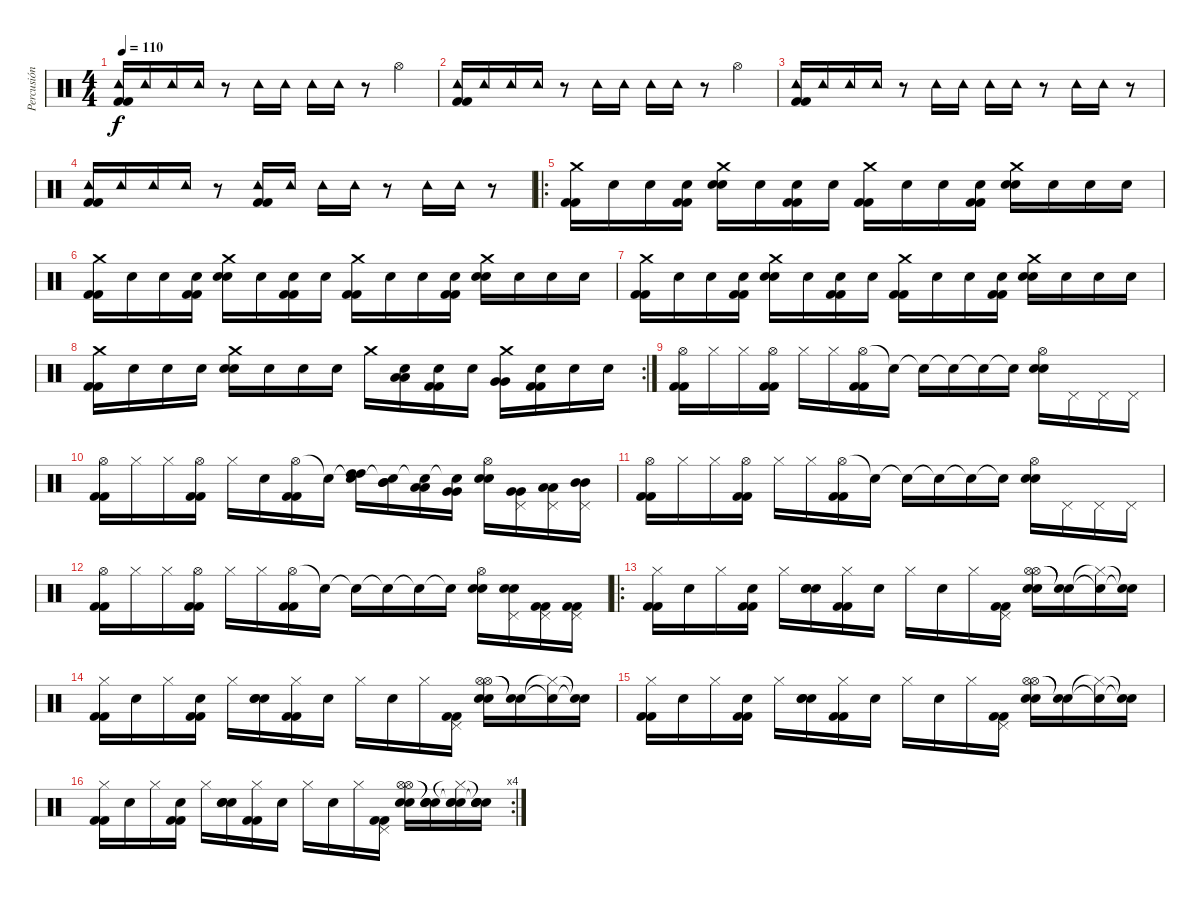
\track ("Percusión" "Percusión") {instrument percussion}
\staff {score}
\articulation defaults
\ts (4 4)
\tempo 110
\clef neutral
\ks c
("Tambourine (hit)" "Kick (hit) 2" "Kick (hit) 2").16{dy f} "Tambourine (hit)".16 "Tambourine (hit)".16 "Tambourine (hit)".16 r.8 "Tambourine (hit)".16 "Tambourine (hit)".16 "Tambourine (hit)".16 "Tambourine (hit)".16 r.8 "Hi-Hat (open)".4 |
("Tambourine (hit)" "Kick (hit) 2" "Kick (hit) 2").16 "Tambourine (hit)".16 "Tambourine (hit)".16 "Tambourine (hit)".16 r.8 "Tambourine (hit)".16 "Tambourine (hit)".16 "Tambourine (hit)".16 "Tambourine (hit)".16 r.8 "Hi-Hat (open)".4 |
("Tambourine (hit)" "Kick (hit) 2" "Kick (hit) 2").16 "Tambourine (hit)".16 "Tambourine (hit)".16 "Tambourine (hit)".16 r.8 "Tambourine (hit)".16 "Tambourine (hit)".16 "Tambourine (hit)".16 "Tambourine (hit)".16 r.8 "Tambourine (hit)".16 "Tambourine (hit)".16 r.8 |
("Tambourine (hit)" "Kick (hit) 2" "Kick (hit) 2").16 "Tambourine (hit)".16 "Tambourine (hit)".16 "Tambourine (hit)".16 r.8 ("Tambourine (hit)" "Kick (hit) 2" "Kick (hit) 2").16 "Tambourine (hit)".16 "Tambourine (hit)".16 "Tambourine (hit)".16 r.8 "Tambourine (hit)".16 "Tambourine (hit)".16 r.8 |
\ro
("Crash medium (hit)" "Kick (hit) 2" "Kick (hit) 2").16 "Snare (hit)".16 "Snare (hit)".16 ("Snare (hit)" "Kick (hit) 2" "Kick (hit) 2").16 ("Crash medium (hit)" "Electric Snare (hit)" "Electric Snare (hit)").16 "Snare (hit)".16 ("Snare (hit)" "Kick (hit) 2" "Kick (hit) 2").16 "Snare (hit)".16 ("Crash medium (hit)" "Kick (hit) 2" "Kick (hit) 2").16 "Snare (hit)".16 "Snare (hit)".16 ("Snare (hit)" "Kick (hit) 2" "Kick (hit) 2").16 ("Crash medium (hit)" "Electric Snare (hit)" "Electric Snare (hit)").16 "Snare (hit)".16 "Snare (hit)".16 "Snare (hit)".16 |
("Crash medium (hit)" "Kick (hit) 2" "Kick (hit) 2").16 "Snare (hit)".16 "Snare (hit)".16 ("Snare (hit)" "Kick (hit) 2" "Kick (hit) 2").16 ("Crash medium (hit)" "Electric Snare (hit)" "Electric Snare (hit)").16 "Snare (hit)".16 ("Snare (hit)" "Kick (hit) 2" "Kick (hit) 2").16 "Snare (hit)".16 ("Crash medium (hit)" "Kick (hit) 2" "Kick (hit) 2").16 "Snare (hit)".16 "Snare (hit)".16 ("Snare (hit)" "Kick (hit) 2" "Kick (hit) 2").16 ("Crash medium (hit)" "Electric Snare (hit)" "Electric Snare (hit)").16 "Snare (hit)".16 "Snare (hit)".16 "Snare (hit)".16 |
("Crash medium (hit)" "Kick (hit) 2" "Kick (hit) 2").16 "Snare (hit)".16 "Snare (hit)".16 ("Snare (hit)" "Kick (hit) 2" "Kick (hit) 2").16 ("Crash medium (hit)" "Electric Snare (hit)" "Electric Snare (hit)").16 "Snare (hit)".16 ("Snare (hit)" "Kick (hit) 2" "Kick (hit) 2").16 "Snare (hit)".16 ("Crash medium (hit)" "Kick (hit) 2" "Kick (hit) 2").16 "Snare (hit)".16 "Snare (hit)".16 ("Snare (hit)" "Kick (hit) 2" "Kick (hit) 2").16 ("Crash medium (hit)" "Electric Snare (hit)" "Electric Snare (hit)").16 "Snare (hit)".16 "Snare (hit)".16 "Snare (hit)".16 |
\rc 2
("Crash medium (hit)" "Kick (hit) 2" "Kick (hit) 2").16 "Snare (hit)".16 "Snare (hit)".16 "Snare (hit)".16 ("Crash medium (hit)" "Electric Snare (hit)" "Electric Snare (hit)").16 "Snare (hit)".16 "Snare (hit)".16 "Snare (hit)".16 "Crash medium (hit)".16 ("Snare (hit)" "Low Tom (hit)" "Low Tom (hit)").16 ("Snare (hit)" "Kick (hit) 2" "Kick (hit) 2").16 "Snare (hit)".16 ("Crash medium (hit)" "Very Low Tom (hit)" "Very Low Tom (hit)").16 ("Snare (hit)" "Kick (hit) 2" "Kick (hit) 2").16 "Snare (hit)".16 "Snare (hit)".16 |
("Hi-Hat (open)" "Kick (hit) 2" "Kick (hit) 2").16 "Hi-Hat (closed)".16 "Hi-Hat (closed)".16 ("Hi-Hat (open)" "Kick (hit) 2" "Kick (hit) 2").16 "Hi-Hat (closed)".16 "Hi-Hat (closed)".16 ("Hi-Hat (open)" "Kick (hit) 2" "Kick (hit) 2").16 "Snare (hit)"{t}.16 "Snare (hit)"{t}.16 "Snare (hit)"{t}.16 "Snare (hit)"{t}.16 "Snare (hit)"{t}.16 ("Hi-Hat (open)" "Electric Snare (hit)" "Electric Snare (hit)").16 "Pedal Hi-Hat (hit)".16 "Pedal Hi-Hat (hit)".16 "Pedal Hi-Hat (hit)".16 |
("Hi-Hat (open)" "Kick (hit) 2" "Kick (hit) 2").16 "Hi-Hat (closed)".16 "Hi-Hat (closed)".16 ("Hi-Hat (open)" "Kick (hit) 2" "Kick (hit) 2").16 "Hi-Hat (closed)".16 "Snare (hit)".16 ("Hi-Hat (open)" "Kick (hit) 2" "Kick (hit) 2").16 "Snare (hit)"{t}.16 ("Snare (hit)"{t} "High Tom (hit)" "High Tom (hit)").16 ("Snare (hit)"{t} "Mid Tom (hit)" "Mid Tom (hit)").16 ("Snare (hit)"{t} "Low Tom (hit)" "Low Tom (hit)").16 ("Snare (hit)"{t} "Very Low Tom (hit)" "Very Low Tom (hit)").16 ("Hi-Hat (open)" "Electric Snare (hit)" "Electric Snare (hit)").16 ("Pedal Hi-Hat (hit)" "Very Low Tom (hit)" "Very Low Tom (hit)").16 ("Pedal Hi-Hat (hit)" "Low Tom (hit)" "Low Tom (hit)").16 ("Pedal Hi-Hat (hit)" "Mid Tom (hit)" "Mid Tom (hit)").16 |
("Hi-Hat (open)" "Kick (hit) 2" "Kick (hit) 2").16 "Hi-Hat (closed)".16 "Hi-Hat (closed)".16 ("Hi-Hat (open)" "Kick (hit) 2" "Kick (hit) 2").16 "Hi-Hat (closed)".16 "Hi-Hat (closed)".16 ("Hi-Hat (open)" "Kick (hit) 2" "Kick (hit) 2").16 "Snare (hit)"{t}.16 "Snare (hit)"{t}.16 "Snare (hit)"{t}.16 "Snare (hit)"{t}.16 "Snare (hit)"{t}.16 ("Hi-Hat (open)" "Electric Snare (hit)" "Electric Snare (hit)").16 "Pedal Hi-Hat (hit)".16 "Pedal Hi-Hat (hit)".16 "Pedal Hi-Hat (hit)".16 |
("Hi-Hat (open)" "Kick (hit) 2" "Kick (hit) 2").16 "Hi-Hat (closed)".16 "Hi-Hat (closed)".16 ("Hi-Hat (open)" "Kick (hit) 2" "Kick (hit) 2").16 "Hi-Hat (closed)".16 "Hi-Hat (closed)".16 ("Hi-Hat (open)" "Kick (hit) 2" "Kick (hit) 2").16 "Snare (hit)"{t}.16 "Snare (hit)"{t}.16 "Snare (hit)"{t}.16 "Snare (hit)"{t}.16 "Snare (hit)"{t}.16 ("Hi-Hat (open)" "Electric Snare (hit)" "Electric Snare (hit)").16 ("Pedal Hi-Hat (hit)" "Electric Snare (hit)" "Electric Snare (hit)").16 ("Pedal Hi-Hat (hit)" "Kick (hit) 2" "Kick (hit) 2").16 ("Pedal Hi-Hat (hit)" "Kick (hit) 2" "Kick (hit) 2").16 |
\ro
("Hi-Hat (closed)" "Kick (hit) 2" "Kick (hit) 2").16 "Snare (hit)".16 "Hi-Hat (closed)".16 ("Snare (hit)" "Kick (hit) 2" "Kick (hit) 2").16 "Hi-Hat (closed)".16 ("Snare (hit)" "Electric Snare (hit)" "Electric Snare (hit)").16 ("Hi-Hat (closed)" "Kick (hit) 2" "Kick (hit) 2").16 "Snare (hit)".16 "Hi-Hat (closed)".16 "Snare (hit)".16 "Hi-Hat (closed)".16 ("Pedal Hi-Hat (hit)" "Kick (hit) 2" "Kick (hit) 2").16 ("Hi-Hat (open)" "Hi-Hat (open)" "Electric Snare (hit)" "Electric Snare (hit)").16 ("Snare (hit)"{t} "Snare (hit)"{t}).16 ("Hi-Hat (closed)"{t} "Snare (hit)"{t}).16 ("Snare (hit)"{t} "Snare (hit)"{t}).16 |
("Hi-Hat (closed)" "Kick (hit) 2" "Kick (hit) 2").16 "Snare (hit)".16 "Hi-Hat (closed)".16 ("Snare (hit)" "Kick (hit) 2" "Kick (hit) 2").16 "Hi-Hat (closed)".16 ("Snare (hit)" "Electric Snare (hit)" "Electric Snare (hit)").16 ("Hi-Hat (closed)" "Kick (hit) 2" "Kick (hit) 2").16 "Snare (hit)".16 "Hi-Hat (closed)".16 "Snare (hit)".16 "Hi-Hat (closed)".16 ("Pedal Hi-Hat (hit)" "Kick (hit) 2" "Kick (hit) 2").16 ("Hi-Hat (open)" "Hi-Hat (open)" "Electric Snare (hit)" "Electric Snare (hit)").16 ("Snare (hit)"{t} "Snare (hit)"{t}).16 ("Hi-Hat (closed)"{t} "Snare (hit)"{t}).16 ("Snare (hit)"{t} "Snare (hit)"{t}).16 |
("Hi-Hat (closed)" "Kick (hit) 2" "Kick (hit) 2").16 "Snare (hit)".16 "Hi-Hat (closed)".16 ("Snare (hit)" "Kick (hit) 2" "Kick (hit) 2").16 "Hi-Hat (closed)".16 ("Snare (hit)" "Electric Snare (hit)" "Electric Snare (hit)").16 ("Hi-Hat (closed)" "Kick (hit) 2" "Kick (hit) 2").16 "Snare (hit)".16 "Hi-Hat (closed)".16 "Snare (hit)".16 "Hi-Hat (closed)".16 ("Pedal Hi-Hat (hit)" "Kick (hit) 2" "Kick (hit) 2").16 ("Hi-Hat (open)" "Hi-Hat (open)" "Electric Snare (hit)" "Electric Snare (hit)").16 ("Snare (hit)"{t} "Snare (hit)"{t}).16 ("Hi-Hat (closed)"{t} "Snare (hit)"{t}).16 ("Snare (hit)"{t} "Snare (hit)"{t}).16 |
\rc 4
("Hi-Hat (closed)" "Kick (hit) 2" "Kick (hit) 2").16 "Snare (hit)".16 "Hi-Hat (closed)".16 ("Snare (hit)" "Kick (hit) 2" "Kick (hit) 2").16 "Hi-Hat (closed)".16 ("Snare (hit)" "Electric Snare (hit)" "Electric Snare (hit)").16 ("Hi-Hat (closed)" "Kick (hit) 2" "Kick (hit) 2").16 "Snare (hit)".16 "Hi-Hat (closed)".16 "Snare (hit)".16 "Hi-Hat (closed)".16 ("Pedal Hi-Hat (hit)" "Kick (hit) 2" "Kick (hit) 2").16 ("Hi-Hat (open)" "Hi-Hat (open)" "Electric Snare (hit)" "Electric Snare (hit)").16 ("Snare (hit)"{t} "Snare (hit)"{t} "Electric Snare (hit)" "Electric Snare (hit)").16 ("Hi-Hat (closed)"{t} "Snare (hit)"{t} "Electric Snare (hit)" "Electric Snare (hit)").16 ("Snare (hit)"{t} "Snare (hit)"{t} "Electric Snare (hit)" "Electric Snare (hit)").16
